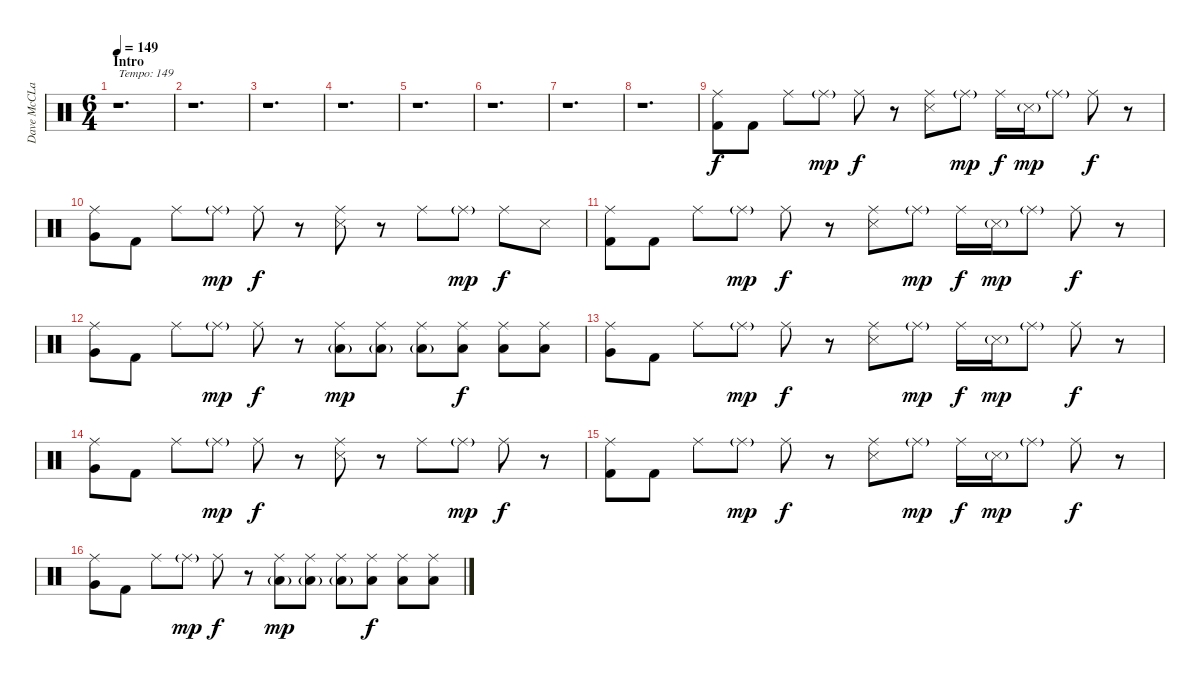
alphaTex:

\track ("Dave McCLain" "Dave McCLa") {instrument percussion}
\staff {score}
\articulation defaults
\ts (6 4)
\section ("" "Intro")
\tempo 149
\clef neutral
\ks c
r.1{d txt "Tempo: 149" dy f} |
r.1{d} |
r.1{d} |
r.1{d} |
r.1{d} |
r.1{d} |
r.1{d} |
r.1{d} |
("Ride (middle)" "Kick (hit) 2").8 "Kick (hit) 2".8 "Ride (middle)".8 "Ride (middle)"{g}.8{dy mp} "Ride (middle)".8{dy f} r.8 ("Ride (middle)" "Snare (side stick) 3").8 "Ride (middle)"{g}.8{dy mp} "Ride (middle)".16{dy f} "Snare (side stick) 3"{g}.16{dy mp} "Ride (middle)"{g}.8 "Ride (middle)".8{dy f} r.8 |
("Ride (middle)" "Very Low Tom (hit)").8 "Kick (hit) 2".8 "Ride (middle)".8 "Ride (middle)"{g}.8{dy mp} "Ride (middle)".8{dy f} r.8 ("Ride (middle)" "Snare (side stick) 3").8 r.8 "Ride (middle)".8 "Ride (middle)"{g}.8{dy mp} "Ride (middle)".8{dy f} "Snare (side stick) 3".8 |
("Ride (middle)" "Kick (hit) 2").8 "Kick (hit) 2".8 "Ride (middle)".8 "Ride (middle)"{g}.8{dy mp} "Ride (middle)".8{dy f} r.8 ("Ride (middle)" "Snare (side stick) 3").8 "Ride (middle)"{g}.8{dy mp} "Ride (middle)".16{dy f} "Snare (side stick) 3"{g}.16{dy mp} "Ride (middle)"{g}.8 "Ride (middle)".8{dy f} r.8 |
("Ride (middle)" "Very Low Tom (hit)").8 "Kick (hit) 2".8 "Ride (middle)".8 "Ride (middle)"{g}.8{dy mp} "Ride (middle)".8{dy f} r.8 ("Ride (middle)" "Low Floor Tom (hit)"{g}).8{dy mp} ("Ride (middle)" "Low Floor Tom (hit)"{g}).8 ("Ride (middle)" "Low Floor Tom (hit)"{g}).8 ("Ride (middle)" "Low Floor Tom (hit)").8{dy f} ("Ride (middle)" "Low Floor Tom (hit)").8 ("Ride (middle)" "Low Floor Tom (hit)").8 |
("Ride (middle)" "Very Low Tom (hit)").8 "Kick (hit) 2".8 "Ride (middle)".8 "Ride (middle)"{g}.8{dy mp} "Ride (middle)".8{dy f} r.8 ("Ride (middle)" "Snare (side stick) 3").8 "Ride (middle)"{g}.8{dy mp} "Ride (middle)".16{dy f} "Snare (side stick) 3"{g}.16{dy mp} "Ride (middle)"{g}.8 "Ride (middle)".8{dy f} r.8 |
("Ride (middle)" "Very Low Tom (hit)").8 "Kick (hit) 2".8 "Ride (middle)".8 "Ride (middle)"{g}.8{dy mp} "Ride (middle)".8{dy f} r.8 ("Ride (middle)" "Snare (side stick) 3").8 r.8 "Ride (middle)".8 "Ride (middle)"{g}.8{dy mp} "Ride (middle)".8{dy f} r.8 |
("Ride (middle)" "Kick (hit) 2").8 "Kick (hit) 2".8 "Ride (middle)".8 "Ride (middle)"{g}.8{dy mp} "Ride (middle)".8{dy f} r.8 ("Ride (middle)" "Snare (side stick) 3").8 "Ride (middle)"{g}.8{dy mp} "Ride (middle)".16{dy f} "Snare (side stick) 3"{g}.16{dy mp} "Ride (middle)"{g}.8 "Ride (middle)".8{dy f} r.8 |
("Ride (middle)" "Very Low Tom (hit)").8 "Kick (hit) 2".8 "Ride (middle)".8 "Ride (middle)"{g}.8{dy mp} "Ride (middle)".8{dy f} r.8 ("Ride (middle)" "Low Floor Tom (hit)"{g}).8{dy mp} ("Ride (middle)" "Low Floor Tom (hit)"{g}).8 ("Ride (middle)" "Low Floor Tom (hit)"{g}).8 ("Ride (middle)" "Low Floor Tom (hit)").8{dy f} ("Ride (middle)" "Low Floor Tom (hit)").8 ("Ride (middle)" "Low Floor Tom (hit)").8
